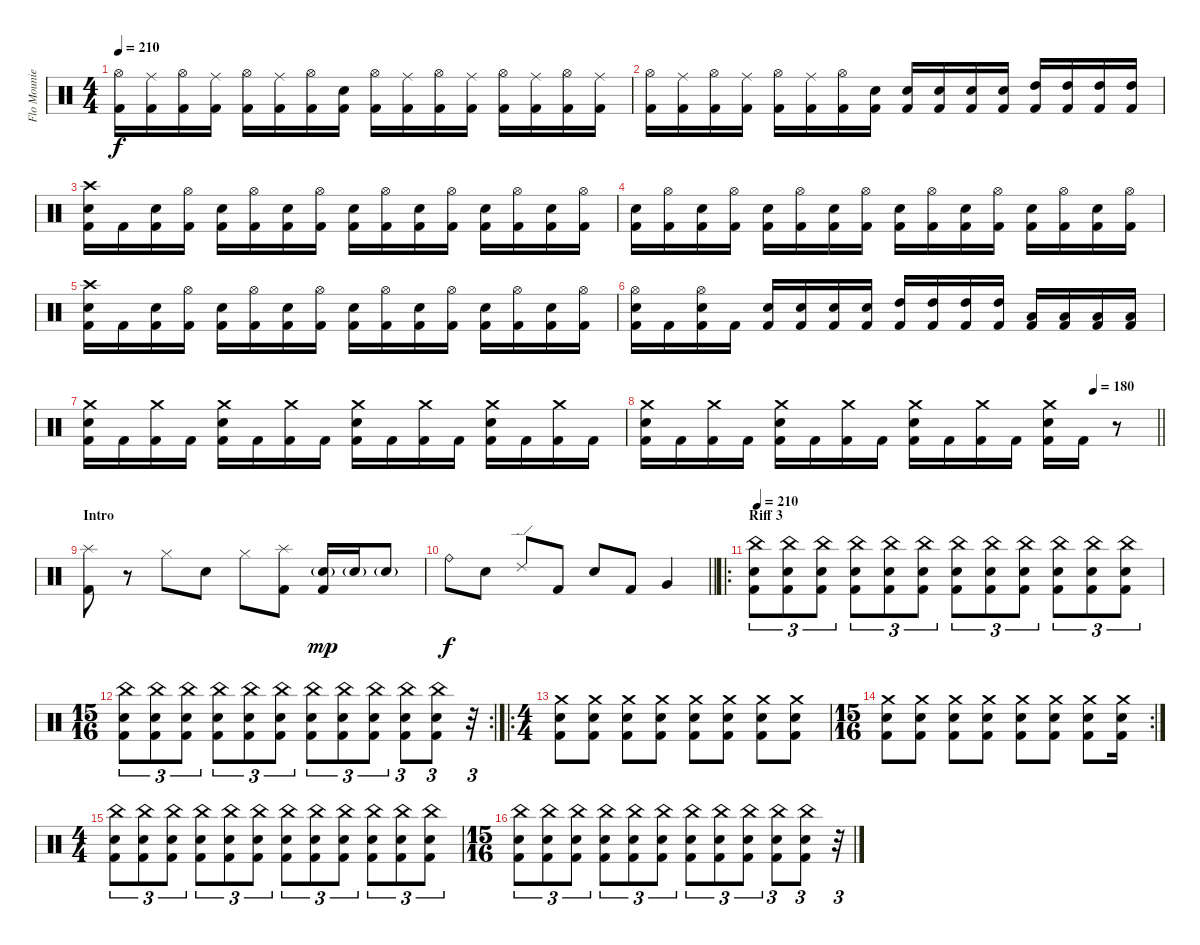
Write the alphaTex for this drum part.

\track ("Flo Mounier" "Flo Mounie") {instrument percussion}
\staff {score}
\articulation defaults
\ts (4 4)
\tempo 210
\clef neutral
\ks c
("Hi-Hat (open)" "Kick (hit) 2").16{dy f} ("Ride (middle)" "Kick (hit) 2").16 ("Hi-Hat (open)" "Kick (hit) 2").16 ("Ride (middle)" "Kick (hit) 2").16 ("Hi-Hat (open)" "Kick (hit) 2").16 ("Ride (middle)" "Kick (hit) 2").16 ("Hi-Hat (open)" "Kick (hit) 2").16 ("Snare (hit) 2" "Kick (hit) 2").16 ("Hi-Hat (open)" "Kick (hit) 2").16 ("Ride (middle)" "Kick (hit) 2").16 ("Hi-Hat (open)" "Kick (hit) 2").16 ("Ride (middle)" "Kick (hit) 2").16 ("Hi-Hat (open)" "Kick (hit) 2").16 ("Ride (middle)" "Kick (hit) 2").16 ("Hi-Hat (open)" "Kick (hit) 2").16 ("Ride (middle)" "Kick (hit) 2").16 |
("Hi-Hat (open)" "Kick (hit) 2").16 ("Ride (middle)" "Kick (hit) 2").16 ("Hi-Hat (open)" "Kick (hit) 2").16 ("Ride (middle)" "Kick (hit) 2").16 ("Hi-Hat (open)" "Kick (hit) 2").16 ("Ride (middle)" "Kick (hit) 2").16 ("Hi-Hat (open)" "Kick (hit) 2").16 ("Snare (hit) 2" "Kick (hit) 2").16 ("Snare (hit) 2" "Kick (hit) 2").16 ("Snare (hit) 2" "Kick (hit) 2").16 ("Snare (hit) 2" "Kick (hit) 2").16 ("Snare (hit) 2" "Kick (hit) 2").16 ("High Tom (hit)" "Kick (hit) 2").16 ("High Tom (hit)" "Kick (hit) 2").16 ("High Tom (hit)" "Kick (hit) 2").16 ("High Tom (hit)" "Kick (hit) 2").16 |
("Crash high (hit)" "Snare (hit) 2" "Kick (hit) 2").16 "Kick (hit) 2".16 ("Snare (hit) 2" "Kick (hit) 2").16 ("Hi-Hat (open)" "Kick (hit) 2").16 ("Snare (hit) 2" "Kick (hit) 2").16 ("Hi-Hat (open)" "Kick (hit) 2").16 ("Snare (hit) 2" "Kick (hit) 2").16 ("Hi-Hat (open)" "Kick (hit) 2").16 ("Snare (hit) 2" "Kick (hit) 2").16 ("Hi-Hat (open)" "Kick (hit) 2").16 ("Snare (hit) 2" "Kick (hit) 2").16 ("Hi-Hat (open)" "Kick (hit) 2").16 ("Snare (hit) 2" "Kick (hit) 2").16 ("Hi-Hat (open)" "Kick (hit) 2").16 ("Snare (hit) 2" "Kick (hit) 2").16 ("Hi-Hat (open)" "Kick (hit) 2").16 |
("Snare (hit) 2" "Kick (hit) 2").16 ("Hi-Hat (open)" "Kick (hit) 2").16 ("Snare (hit) 2" "Kick (hit) 2").16 ("Hi-Hat (open)" "Kick (hit) 2").16 ("Snare (hit) 2" "Kick (hit) 2").16 ("Hi-Hat (open)" "Kick (hit) 2").16 ("Snare (hit) 2" "Kick (hit) 2").16 ("Hi-Hat (open)" "Kick (hit) 2").16 ("Snare (hit) 2" "Kick (hit) 2").16 ("Hi-Hat (open)" "Kick (hit) 2").16 ("Snare (hit) 2" "Kick (hit) 2").16 ("Hi-Hat (open)" "Kick (hit) 2").16 ("Snare (hit) 2" "Kick (hit) 2").16 ("Hi-Hat (open)" "Kick (hit) 2").16 ("Snare (hit) 2" "Kick (hit) 2").16 ("Hi-Hat (open)" "Kick (hit) 2").16 |
("Crash high (hit)" "Snare (hit) 2" "Kick (hit) 2").16 "Kick (hit) 2".16 ("Snare (hit) 2" "Kick (hit) 2").16 ("Hi-Hat (open)" "Kick (hit) 2").16 ("Snare (hit) 2" "Kick (hit) 2").16 ("Hi-Hat (open)" "Kick (hit) 2").16 ("Snare (hit) 2" "Kick (hit) 2").16 ("Hi-Hat (open)" "Kick (hit) 2").16 ("Snare (hit) 2" "Kick (hit) 2").16 ("Hi-Hat (open)" "Kick (hit) 2").16 ("Snare (hit) 2" "Kick (hit) 2").16 ("Hi-Hat (open)" "Kick (hit) 2").16 ("Snare (hit) 2" "Kick (hit) 2").16 ("Hi-Hat (open)" "Kick (hit) 2").16 ("Snare (hit) 2" "Kick (hit) 2").16 ("Hi-Hat (open)" "Kick (hit) 2").16 |
("Hi-Hat (open)" "Snare (hit) 2" "Kick (hit) 2").16 "Kick (hit) 2".16 ("Hi-Hat (open)" "Snare (hit) 2" "Kick (hit) 2").16 "Kick (hit) 2".16 ("Snare (hit) 2" "Kick (hit) 2").16 ("Snare (hit) 2" "Kick (hit) 2").16 ("Snare (hit) 2" "Kick (hit) 2").16 ("Snare (hit) 2" "Kick (hit) 2").16 ("High Tom (hit)" "Kick (hit) 2").16 ("High Tom (hit)" "Kick (hit) 2").16 ("High Tom (hit)" "Kick (hit) 2").16 ("High Tom (hit)" "Kick (hit) 2").16 ("Low Tom (hit)" "Kick (hit) 2").16 ("Low Tom (hit)" "Kick (hit) 2").16 ("Low Tom (hit)" "Kick (hit) 2").16 ("Low Tom (hit)" "Kick (hit) 2").16 |
("Crash medium (hit)" "Snare (hit) 2" "Kick (hit) 2").16 "Kick (hit) 2".16 ("Crash medium (hit)" "Kick (hit) 2").16 "Kick (hit) 2".16 ("Crash medium (hit)" "Snare (hit) 2" "Kick (hit) 2").16 "Kick (hit) 2".16 ("Crash medium (hit)" "Kick (hit) 2").16 "Kick (hit) 2".16 ("Crash medium (hit)" "Snare (hit) 2" "Kick (hit) 2").16 "Kick (hit) 2".16 ("Crash medium (hit)" "Kick (hit) 2").16 "Kick (hit) 2".16 ("Crash medium (hit)" "Snare (hit) 2" "Kick (hit) 2").16 "Kick (hit) 2".16 ("Crash medium (hit)" "Kick (hit) 2").16 "Kick (hit) 2".16 |
\tempo (180 0.875)
\barLineRight lightlight
("Crash medium (hit)" "Snare (hit) 2" "Kick (hit) 2").16 "Kick (hit) 2".16 ("Crash medium (hit)" "Kick (hit) 2").16 "Kick (hit) 2".16 ("Crash medium (hit)" "Snare (hit) 2" "Kick (hit) 2").16 "Kick (hit) 2".16 ("Crash medium (hit)" "Kick (hit) 2").16 "Kick (hit) 2".16 ("Crash medium (hit)" "Snare (hit) 2" "Kick (hit) 2").16 "Kick (hit) 2".16 ("Crash medium (hit)" "Kick (hit) 2").16 "Kick (hit) 2".16 ("Crash medium (hit)" "Snare (hit) 2" "Kick (hit) 2").16 "Kick (hit) 2".16 r.8 |
\section ("" "Intro")
("Splash (hit)" "Kick (hit) 2").8 r.8 "Hi-Hat (closed)".8 "Snare (hit) 2".8 "Hi-Hat (closed)".8 ("Splash (hit)" "Kick (hit) 2").8 ("Snare (hit) 2"{g} "Kick (hit) 2").16{dy mp} "Snare (hit) 2"{g}.16 "Snare (hit) 2"{g}.8 |
\barLineRight lightlight "Ride (bell)".8{dy f} "Snare (hit) 2".8 "Ride (edge) 2".8 "Kick (hit) 2".8 "Snare (hit) 2".8 "Kick (hit) 2".8 "Very Low Tom (hit)".4
|
\ro
\section ("" "Riff 3")
\tempo 210
("China (hit)" "Snare (hit) 2" "Kick (hit) 2").8{tu (3 2)} ("China (hit)" "Snare (hit) 2" "Kick (hit) 2").8{tu (3 2)} ("China (hit)" "Snare (hit) 2" "Kick (hit) 2").8{tu (3 2)} ("China (hit)" "Snare (hit) 2" "Kick (hit) 2").8{tu (3 2)} ("China (hit)" "Snare (hit) 2" "Kick (hit) 2").8{tu (3 2)} ("China (hit)" "Snare (hit) 2" "Kick (hit) 2").8{tu (3 2)} ("China (hit)" "Snare (hit) 2" "Kick (hit) 2").8{tu (3 2)} ("China (hit)" "Snare (hit) 2" "Kick (hit) 2").8{tu (3 2)} ("China (hit)" "Snare (hit) 2" "Kick (hit) 2").8{tu (3 2)} ("China (hit)" "Snare (hit) 2" "Kick (hit) 2").8{tu (3 2)} ("China (hit)" "Snare (hit) 2" "Kick (hit) 2").8{tu (3 2)} ("China (hit)" "Snare (hit) 2" "Kick (hit) 2").8{tu (3 2)} |
\rc 2
\ts (15 16)
("China (hit)" "Snare (hit) 2" "Kick (hit) 2").8{tu (3 2)} ("China (hit)" "Snare (hit) 2" "Kick (hit) 2").8{tu (3 2)} ("China (hit)" "Snare (hit) 2" "Kick (hit) 2").8{tu (3 2)} ("China (hit)" "Snare (hit) 2" "Kick (hit) 2").8{tu (3 2)} ("China (hit)" "Snare (hit) 2" "Kick (hit) 2").8{tu (3 2)} ("China (hit)" "Snare (hit) 2" "Kick (hit) 2").8{tu (3 2)} ("China (hit)" "Snare (hit) 2" "Kick (hit) 2").8{tu (3 2)} ("China (hit)" "Snare (hit) 2" "Kick (hit) 2").8{tu (3 2)} ("China (hit)" "Snare (hit) 2" "Kick (hit) 2").8{tu (3 2)} ("China (hit)" "Snare (hit) 2" "Kick (hit) 2").8{tu (3 2)} ("China (hit)" "Snare (hit) 2" "Kick (hit) 2").8{tu (3 2)} r.32{tu (3 2)} |
\ro
\ts (4 4)
("Crash medium (hit)" "Snare (hit) 2" "Kick (hit) 2").8 ("Crash medium (hit)" "Snare (hit) 2" "Kick (hit) 2").8 ("Crash medium (hit)" "Snare (hit) 2" "Kick (hit) 2").8 ("Crash medium (hit)" "Snare (hit) 2" "Kick (hit) 2").8 ("Crash medium (hit)" "Snare (hit) 2" "Kick (hit) 2").8 ("Crash medium (hit)" "Snare (hit) 2" "Kick (hit) 2").8 ("Crash medium (hit)" "Snare (hit) 2" "Kick (hit) 2").8 ("Crash medium (hit)" "Snare (hit) 2" "Kick (hit) 2").8 |
\rc 2
\ts (15 16)
("Crash medium (hit)" "Snare (hit) 2" "Kick (hit) 2").8 ("Crash medium (hit)" "Snare (hit) 2" "Kick (hit) 2").8 ("Crash medium (hit)" "Snare (hit) 2" "Kick (hit) 2").8 ("Crash medium (hit)" "Snare (hit) 2" "Kick (hit) 2").8 ("Crash medium (hit)" "Snare (hit) 2" "Kick (hit) 2").8 ("Crash medium (hit)" "Snare (hit) 2" "Kick (hit) 2").8 ("Crash medium (hit)" "Snare (hit) 2" "Kick (hit) 2").8 ("Crash medium (hit)" "Snare (hit) 2" "Kick (hit) 2").16 |
\ts (4 4)
("China (hit)" "Snare (hit) 2" "Kick (hit) 2").8{tu (3 2)} ("China (hit)" "Snare (hit) 2" "Kick (hit) 2").8{tu (3 2)} ("China (hit)" "Snare (hit) 2" "Kick (hit) 2").8{tu (3 2)} ("China (hit)" "Snare (hit) 2" "Kick (hit) 2").8{tu (3 2)} ("China (hit)" "Snare (hit) 2" "Kick (hit) 2").8{tu (3 2)} ("China (hit)" "Snare (hit) 2" "Kick (hit) 2").8{tu (3 2)} ("China (hit)" "Snare (hit) 2" "Kick (hit) 2").8{tu (3 2)} ("China (hit)" "Snare (hit) 2" "Kick (hit) 2").8{tu (3 2)} ("China (hit)" "Snare (hit) 2" "Kick (hit) 2").8{tu (3 2)} ("China (hit)" "Snare (hit) 2" "Kick (hit) 2").8{tu (3 2)} ("China (hit)" "Snare (hit) 2" "Kick (hit) 2").8{tu (3 2)} ("China (hit)" "Snare (hit) 2" "Kick (hit) 2").8{tu (3 2)} |
\ts (15 16)
("China (hit)" "Snare (hit) 2" "Kick (hit) 2").8{tu (3 2)} ("China (hit)" "Snare (hit) 2" "Kick (hit) 2").8{tu (3 2)} ("China (hit)" "Snare (hit) 2" "Kick (hit) 2").8{tu (3 2)} ("China (hit)" "Snare (hit) 2" "Kick (hit) 2").8{tu (3 2)} ("China (hit)" "Snare (hit) 2" "Kick (hit) 2").8{tu (3 2)} ("China (hit)" "Snare (hit) 2" "Kick (hit) 2").8{tu (3 2)} ("China (hit)" "Snare (hit) 2" "Kick (hit) 2").8{tu (3 2)} ("China (hit)" "Snare (hit) 2" "Kick (hit) 2").8{tu (3 2)} ("China (hit)" "Snare (hit) 2" "Kick (hit) 2").8{tu (3 2)} ("China (hit)" "Snare (hit) 2" "Kick (hit) 2").8{tu (3 2)} ("China (hit)" "Snare (hit) 2" "Kick (hit) 2").8{tu (3 2)} r.32{tu (3 2)}
